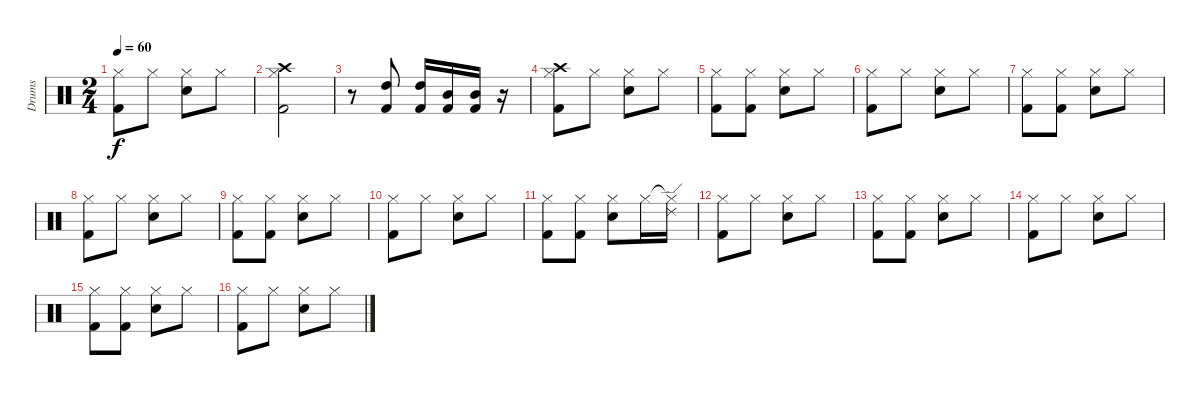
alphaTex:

\track ("Drums" "Drums") {instrument percussion}
\staff {score}
\articulation defaults
\ts (2 4)
\tempo 60
\clef neutral
\ks c
("Hi-Hat (closed)" "Kick (hit) 2").8{dy f} "Hi-Hat (closed)".8 ("Hi-Hat (closed)" "Snare (hit) 2").8 "Hi-Hat (closed)".8 |
("Hi-Hat (closed)" "Crash high (hit)" "Kick (hit) 2").2 |
r.8 ("High Tom (hit)" "Kick (hit) 2").8 ("High Tom (hit)" "Kick (hit) 2").16 ("Mid Tom (hit)" "Kick (hit) 2").16 ("Mid Tom (hit)" "Kick (hit) 2").16 r.16 |
("Hi-Hat (closed)" "Crash high (hit)" "Kick (hit) 2").8 "Hi-Hat (closed)".8 ("Hi-Hat (closed)" "Snare (hit) 2").8 "Hi-Hat (closed)".8 |
("Hi-Hat (closed)" "Kick (hit) 2").8 ("Hi-Hat (closed)" "Kick (hit) 2").8 ("Hi-Hat (closed)" "Snare (hit) 2").8 "Hi-Hat (closed)".8 |
("Hi-Hat (closed)" "Kick (hit) 2").8 "Hi-Hat (closed)".8 ("Hi-Hat (closed)" "Snare (hit) 2").8 "Hi-Hat (closed)".8 |
("Hi-Hat (closed)" "Kick (hit) 2").8 ("Hi-Hat (closed)" "Kick (hit) 2").8 ("Hi-Hat (closed)" "Snare (hit) 2").8 "Hi-Hat (closed)".8 |
("Hi-Hat (closed)" "Kick (hit) 2").8 "Hi-Hat (closed)".8 ("Hi-Hat (closed)" "Snare (hit) 2").8 "Hi-Hat (closed)".8 |
("Hi-Hat (closed)" "Kick (hit) 2").8 ("Hi-Hat (closed)" "Kick (hit) 2").8 ("Hi-Hat (closed)" "Snare (hit) 2").8 "Hi-Hat (closed)".8 |
("Hi-Hat (closed)" "Kick (hit) 2").8 "Hi-Hat (closed)".8 ("Hi-Hat (closed)" "Snare (hit) 2").8 "Hi-Hat (closed)".8 |
("Hi-Hat (closed)" "Kick (hit) 2").8 ("Hi-Hat (closed)" "Kick (hit) 2").8 ("Hi-Hat (closed)" "Snare (hit) 2").8 "Hi-Hat (closed)".16 ("Hi-Hat (closed)"{t} "Ride (edge) 2").16 |
("Hi-Hat (closed)" "Kick (hit) 2").8 "Hi-Hat (closed)".8 ("Hi-Hat (closed)" "Snare (hit) 2").8 "Hi-Hat (closed)".8 |
("Hi-Hat (closed)" "Kick (hit) 2").8 ("Hi-Hat (closed)" "Kick (hit) 2").8 ("Hi-Hat (closed)" "Snare (hit) 2").8 "Hi-Hat (closed)".8 |
("Hi-Hat (closed)" "Kick (hit) 2").8 "Hi-Hat (closed)".8 ("Hi-Hat (closed)" "Snare (hit) 2").8 "Hi-Hat (closed)".8 |
("Hi-Hat (closed)" "Kick (hit) 2").8 ("Hi-Hat (closed)" "Kick (hit) 2").8 ("Hi-Hat (closed)" "Snare (hit) 2").8 "Hi-Hat (closed)".8 |
("Hi-Hat (closed)" "Kick (hit) 2").8 "Hi-Hat (closed)".8 ("Hi-Hat (closed)" "Snare (hit) 2").8 "Hi-Hat (closed)".8
